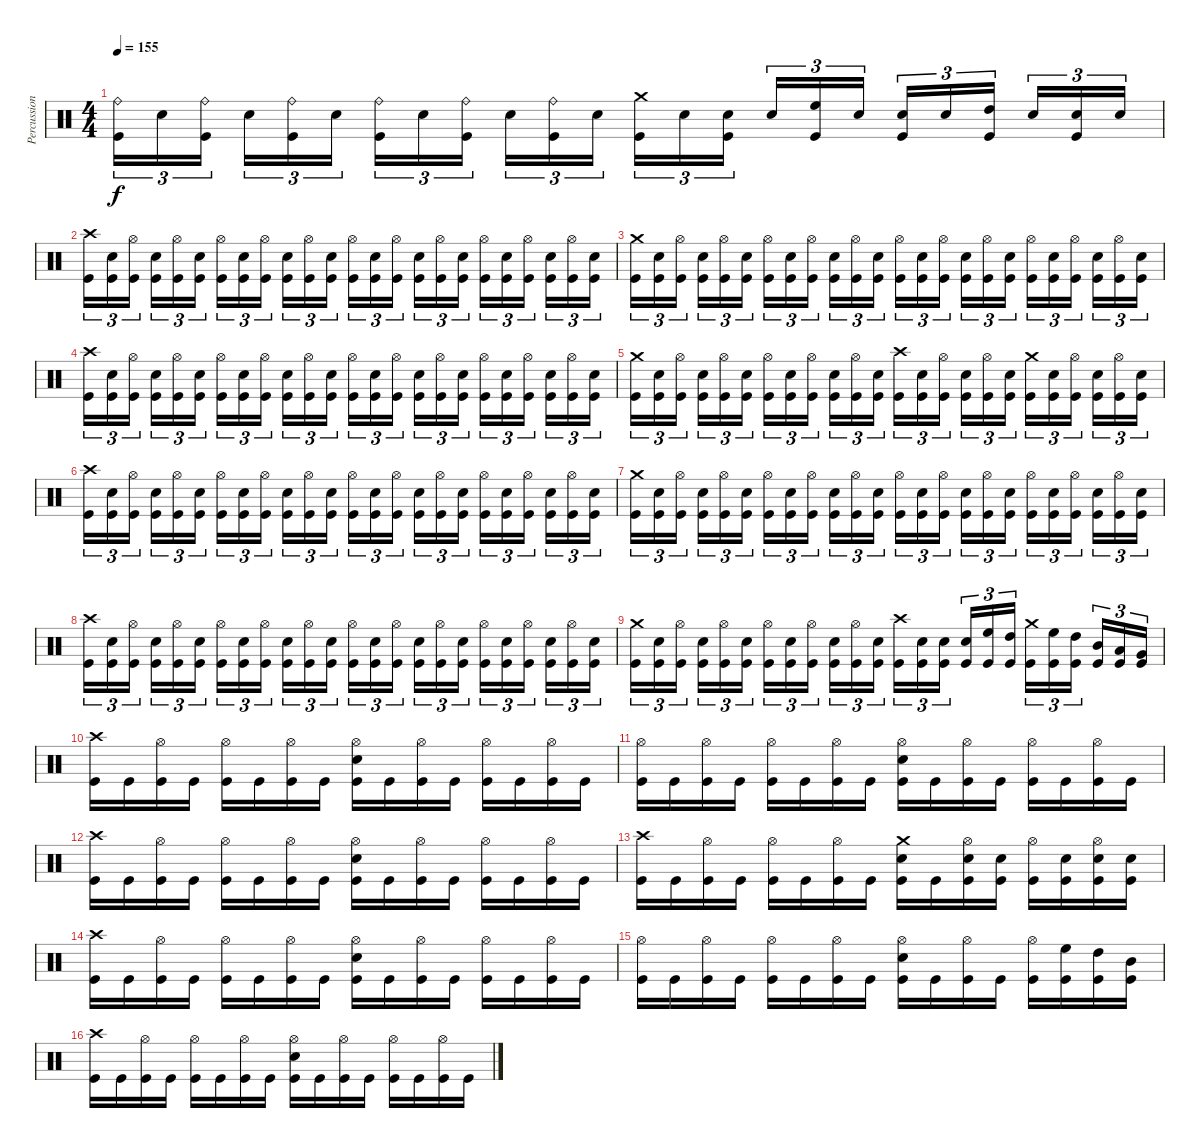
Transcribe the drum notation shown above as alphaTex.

\track ("Percussion" "Percussion") {instrument percussion}
\staff {score}
\articulation defaults
\ts (4 4)
\tempo 155
\clef neutral
\ks c
("Ride (bell)" "Kick (hit)").16{tu (3 2) dy f} "Snare (hit) 2".16{tu (3 2)} ("Ride (bell)" "Kick (hit)").16{tu (3 2) beam splitsecondary} "Snare (hit) 2".16{tu (3 2)} ("Ride (bell)" "Kick (hit)").16{tu (3 2)} "Snare (hit) 2".16{tu (3 2)} ("Ride (bell)" "Kick (hit)").16{tu (3 2)} "Snare (hit) 2".16{tu (3 2)} ("Ride (bell)" "Kick (hit)").16{tu (3 2) beam splitsecondary} "Snare (hit) 2".16{tu (3 2)} ("Ride (bell)" "Kick (hit)").16{tu (3 2)} "Snare (hit) 2".16{tu (3 2)} ("Crash medium (hit)" "Kick (hit)").16{tu (3 2)} "Snare (hit) 2".16{tu (3 2)} ("Snare (hit) 2" "Kick (hit)").16{tu (3 2) beam splitsecondary} "Snare (hit) 2".16{tu (3 2)} ("High Floor Tom (hit)" "Kick (hit)").16{tu (3 2)} "Snare (hit) 2".16{tu (3 2)} ("Snare (hit) 2" "Kick (hit)").16{tu (3 2)} "Snare (hit) 2".16{tu (3 2)} ("High Tom (hit)" "Kick (hit)").16{tu (3 2) beam splitsecondary} "Snare (hit) 2".16{tu (3 2)} ("Snare (hit) 2" "Kick (hit)").16{tu (3 2)} "Snare (hit) 2".16{tu (3 2)} |
("Crash high (hit)" "Kick (hit)").16{tu (3 2)} ("Snare (hit) 2" "Kick (hit)").16{tu (3 2)} ("Hi-Hat (open)" "Kick (hit)").16{tu (3 2) beam splitsecondary} ("Snare (hit) 2" "Kick (hit)").16{tu (3 2)} ("Hi-Hat (open)" "Kick (hit)").16{tu (3 2)} ("Snare (hit) 2" "Kick (hit)").16{tu (3 2)} ("Hi-Hat (open)" "Kick (hit)").16{tu (3 2)} ("Snare (hit) 2" "Kick (hit)").16{tu (3 2)} ("Hi-Hat (open)" "Kick (hit)").16{tu (3 2) beam splitsecondary} ("Snare (hit) 2" "Kick (hit)").16{tu (3 2)} ("Hi-Hat (open)" "Kick (hit)").16{tu (3 2)} ("Snare (hit) 2" "Kick (hit)").16{tu (3 2)} ("Hi-Hat (open)" "Kick (hit)").16{tu (3 2)} ("Snare (hit) 2" "Kick (hit)").16{tu (3 2)} ("Hi-Hat (open)" "Kick (hit)").16{tu (3 2) beam splitsecondary} ("Snare (hit) 2" "Kick (hit)").16{tu (3 2)} ("Hi-Hat (open)" "Kick (hit)").16{tu (3 2)} ("Snare (hit) 2" "Kick (hit)").16{tu (3 2)} ("Hi-Hat (open)" "Kick (hit)").16{tu (3 2)} ("Snare (hit) 2" "Kick (hit)").16{tu (3 2)} ("Hi-Hat (open)" "Kick (hit)").16{tu (3 2) beam splitsecondary} ("Snare (hit) 2" "Kick (hit)").16{tu (3 2)} ("Hi-Hat (open)" "Kick (hit)").16{tu (3 2)} ("Snare (hit) 2" "Kick (hit)").16{tu (3 2)} |
("Crash medium (hit)" "Kick (hit)").16{tu (3 2)} ("Snare (hit) 2" "Kick (hit)").16{tu (3 2)} ("Hi-Hat (open)" "Kick (hit)").16{tu (3 2) beam splitsecondary} ("Snare (hit) 2" "Kick (hit)").16{tu (3 2)} ("Hi-Hat (open)" "Kick (hit)").16{tu (3 2)} ("Snare (hit) 2" "Kick (hit)").16{tu (3 2)} ("Hi-Hat (open)" "Kick (hit)").16{tu (3 2)} ("Snare (hit) 2" "Kick (hit)").16{tu (3 2)} ("Hi-Hat (open)" "Kick (hit)").16{tu (3 2) beam splitsecondary} ("Snare (hit) 2" "Kick (hit)").16{tu (3 2)} ("Hi-Hat (open)" "Kick (hit)").16{tu (3 2)} ("Snare (hit) 2" "Kick (hit)").16{tu (3 2)} ("Hi-Hat (open)" "Kick (hit)").16{tu (3 2)} ("Snare (hit) 2" "Kick (hit)").16{tu (3 2)} ("Hi-Hat (open)" "Kick (hit)").16{tu (3 2) beam splitsecondary} ("Snare (hit) 2" "Kick (hit)").16{tu (3 2)} ("Hi-Hat (open)" "Kick (hit)").16{tu (3 2)} ("Snare (hit) 2" "Kick (hit)").16{tu (3 2)} ("Hi-Hat (open)" "Kick (hit)").16{tu (3 2)} ("Snare (hit) 2" "Kick (hit)").16{tu (3 2)} ("Hi-Hat (open)" "Kick (hit)").16{tu (3 2) beam splitsecondary} ("Snare (hit) 2" "Kick (hit)").16{tu (3 2)} ("Hi-Hat (open)" "Kick (hit)").16{tu (3 2)} ("Snare (hit) 2" "Kick (hit)").16{tu (3 2)} |
("Crash high (hit)" "Kick (hit)").16{tu (3 2)} ("Snare (hit) 2" "Kick (hit)").16{tu (3 2)} ("Hi-Hat (open)" "Kick (hit)").16{tu (3 2) beam splitsecondary} ("Snare (hit) 2" "Kick (hit)").16{tu (3 2)} ("Hi-Hat (open)" "Kick (hit)").16{tu (3 2)} ("Snare (hit) 2" "Kick (hit)").16{tu (3 2)} ("Hi-Hat (open)" "Kick (hit)").16{tu (3 2)} ("Snare (hit) 2" "Kick (hit)").16{tu (3 2)} ("Hi-Hat (open)" "Kick (hit)").16{tu (3 2) beam splitsecondary} ("Snare (hit) 2" "Kick (hit)").16{tu (3 2)} ("Hi-Hat (open)" "Kick (hit)").16{tu (3 2)} ("Snare (hit) 2" "Kick (hit)").16{tu (3 2)} ("Hi-Hat (open)" "Kick (hit)").16{tu (3 2)} ("Snare (hit) 2" "Kick (hit)").16{tu (3 2)} ("Hi-Hat (open)" "Kick (hit)").16{tu (3 2) beam splitsecondary} ("Snare (hit) 2" "Kick (hit)").16{tu (3 2)} ("Hi-Hat (open)" "Kick (hit)").16{tu (3 2)} ("Snare (hit) 2" "Kick (hit)").16{tu (3 2)} ("Hi-Hat (open)" "Kick (hit)").16{tu (3 2)} ("Snare (hit) 2" "Kick (hit)").16{tu (3 2)} ("Hi-Hat (open)" "Kick (hit)").16{tu (3 2) beam splitsecondary} ("Snare (hit) 2" "Kick (hit)").16{tu (3 2)} ("Hi-Hat (open)" "Kick (hit)").16{tu (3 2)} ("Snare (hit) 2" "Kick (hit)").16{tu (3 2)} |
("Crash medium (hit)" "Kick (hit)").16{tu (3 2)} ("Snare (hit) 2" "Kick (hit)").16{tu (3 2)} ("Hi-Hat (open)" "Kick (hit)").16{tu (3 2) beam splitsecondary} ("Snare (hit) 2" "Kick (hit)").16{tu (3 2)} ("Hi-Hat (open)" "Kick (hit)").16{tu (3 2)} ("Snare (hit) 2" "Kick (hit)").16{tu (3 2)} ("Hi-Hat (open)" "Kick (hit)").16{tu (3 2)} ("Snare (hit) 2" "Kick (hit)").16{tu (3 2)} ("Hi-Hat (open)" "Kick (hit)").16{tu (3 2) beam splitsecondary} ("Snare (hit) 2" "Kick (hit)").16{tu (3 2)} ("Hi-Hat (open)" "Kick (hit)").16{tu (3 2)} ("Snare (hit) 2" "Kick (hit)").16{tu (3 2)} ("Crash high (hit)" "Kick (hit)").16{tu (3 2)} ("Snare (hit) 2" "Kick (hit)").16{tu (3 2)} ("Hi-Hat (open)" "Kick (hit)").16{tu (3 2) beam splitsecondary} ("Snare (hit) 2" "Kick (hit)").16{tu (3 2)} ("Hi-Hat (open)" "Kick (hit)").16{tu (3 2)} ("Snare (hit) 2" "Kick (hit)").16{tu (3 2)} ("Crash medium (hit)" "Kick (hit)").16{tu (3 2)} ("Snare (hit) 2" "Kick (hit)").16{tu (3 2)} ("Hi-Hat (open)" "Kick (hit)").16{tu (3 2) beam splitsecondary} ("Snare (hit) 2" "Kick (hit)").16{tu (3 2)} ("Hi-Hat (open)" "Kick (hit)").16{tu (3 2)} ("Snare (hit) 2" "Kick (hit)").16{tu (3 2)} |
("Crash high (hit)" "Kick (hit)").16{tu (3 2)} ("Snare (hit) 2" "Kick (hit)").16{tu (3 2)} ("Hi-Hat (open)" "Kick (hit)").16{tu (3 2) beam splitsecondary} ("Snare (hit) 2" "Kick (hit)").16{tu (3 2)} ("Hi-Hat (open)" "Kick (hit)").16{tu (3 2)} ("Snare (hit) 2" "Kick (hit)").16{tu (3 2)} ("Hi-Hat (open)" "Kick (hit)").16{tu (3 2)} ("Snare (hit) 2" "Kick (hit)").16{tu (3 2)} ("Hi-Hat (open)" "Kick (hit)").16{tu (3 2) beam splitsecondary} ("Snare (hit) 2" "Kick (hit)").16{tu (3 2)} ("Hi-Hat (open)" "Kick (hit)").16{tu (3 2)} ("Snare (hit) 2" "Kick (hit)").16{tu (3 2)} ("Hi-Hat (open)" "Kick (hit)").16{tu (3 2)} ("Snare (hit) 2" "Kick (hit)").16{tu (3 2)} ("Hi-Hat (open)" "Kick (hit)").16{tu (3 2) beam splitsecondary} ("Snare (hit) 2" "Kick (hit)").16{tu (3 2)} ("Hi-Hat (open)" "Kick (hit)").16{tu (3 2)} ("Snare (hit) 2" "Kick (hit)").16{tu (3 2)} ("Hi-Hat (open)" "Kick (hit)").16{tu (3 2)} ("Snare (hit) 2" "Kick (hit)").16{tu (3 2)} ("Hi-Hat (open)" "Kick (hit)").16{tu (3 2) beam splitsecondary} ("Snare (hit) 2" "Kick (hit)").16{tu (3 2)} ("Hi-Hat (open)" "Kick (hit)").16{tu (3 2)} ("Snare (hit) 2" "Kick (hit)").16{tu (3 2)} |
("Crash medium (hit)" "Kick (hit)").16{tu (3 2)} ("Snare (hit) 2" "Kick (hit)").16{tu (3 2)} ("Hi-Hat (open)" "Kick (hit)").16{tu (3 2) beam splitsecondary} ("Snare (hit) 2" "Kick (hit)").16{tu (3 2)} ("Hi-Hat (open)" "Kick (hit)").16{tu (3 2)} ("Snare (hit) 2" "Kick (hit)").16{tu (3 2)} ("Hi-Hat (open)" "Kick (hit)").16{tu (3 2)} ("Snare (hit) 2" "Kick (hit)").16{tu (3 2)} ("Hi-Hat (open)" "Kick (hit)").16{tu (3 2) beam splitsecondary} ("Snare (hit) 2" "Kick (hit)").16{tu (3 2)} ("Hi-Hat (open)" "Kick (hit)").16{tu (3 2)} ("Snare (hit) 2" "Kick (hit)").16{tu (3 2)} ("Hi-Hat (open)" "Kick (hit)").16{tu (3 2)} ("Snare (hit) 2" "Kick (hit)").16{tu (3 2)} ("Hi-Hat (open)" "Kick (hit)").16{tu (3 2) beam splitsecondary} ("Snare (hit) 2" "Kick (hit)").16{tu (3 2)} ("Hi-Hat (open)" "Kick (hit)").16{tu (3 2)} ("Snare (hit) 2" "Kick (hit)").16{tu (3 2)} ("Hi-Hat (open)" "Kick (hit)").16{tu (3 2)} ("Snare (hit) 2" "Kick (hit)").16{tu (3 2)} ("Hi-Hat (open)" "Kick (hit)").16{tu (3 2) beam splitsecondary} ("Snare (hit) 2" "Kick (hit)").16{tu (3 2)} ("Hi-Hat (open)" "Kick (hit)").16{tu (3 2)} ("Snare (hit) 2" "Kick (hit)").16{tu (3 2)} |
("Crash high (hit)" "Kick (hit)").16{tu (3 2)} ("Snare (hit) 2" "Kick (hit)").16{tu (3 2)} ("Hi-Hat (open)" "Kick (hit)").16{tu (3 2) beam splitsecondary} ("Snare (hit) 2" "Kick (hit)").16{tu (3 2)} ("Hi-Hat (open)" "Kick (hit)").16{tu (3 2)} ("Snare (hit) 2" "Kick (hit)").16{tu (3 2)} ("Hi-Hat (open)" "Kick (hit)").16{tu (3 2)} ("Snare (hit) 2" "Kick (hit)").16{tu (3 2)} ("Hi-Hat (open)" "Kick (hit)").16{tu (3 2) beam splitsecondary} ("Snare (hit) 2" "Kick (hit)").16{tu (3 2)} ("Hi-Hat (open)" "Kick (hit)").16{tu (3 2)} ("Snare (hit) 2" "Kick (hit)").16{tu (3 2)} ("Hi-Hat (open)" "Kick (hit)").16{tu (3 2)} ("Snare (hit) 2" "Kick (hit)").16{tu (3 2)} ("Hi-Hat (open)" "Kick (hit)").16{tu (3 2) beam splitsecondary} ("Snare (hit) 2" "Kick (hit)").16{tu (3 2)} ("Hi-Hat (open)" "Kick (hit)").16{tu (3 2)} ("Snare (hit) 2" "Kick (hit)").16{tu (3 2)} ("Hi-Hat (open)" "Kick (hit)").16{tu (3 2)} ("Snare (hit) 2" "Kick (hit)").16{tu (3 2)} ("Hi-Hat (open)" "Kick (hit)").16{tu (3 2) beam splitsecondary} ("Snare (hit) 2" "Kick (hit)").16{tu (3 2)} ("Hi-Hat (open)" "Kick (hit)").16{tu (3 2)} ("Snare (hit) 2" "Kick (hit)").16{tu (3 2)} |
("Crash medium (hit)" "Kick (hit)").16{tu (3 2)} ("Snare (hit) 2" "Kick (hit)").16{tu (3 2)} ("Hi-Hat (open)" "Kick (hit)").16{tu (3 2) beam splitsecondary} ("Snare (hit) 2" "Kick (hit)").16{tu (3 2)} ("Hi-Hat (open)" "Kick (hit)").16{tu (3 2)} ("Snare (hit) 2" "Kick (hit)").16{tu (3 2)} ("Hi-Hat (open)" "Kick (hit)").16{tu (3 2)} ("Snare (hit) 2" "Kick (hit)").16{tu (3 2)} ("Hi-Hat (open)" "Kick (hit)").16{tu (3 2) beam splitsecondary} ("Snare (hit) 2" "Kick (hit)").16{tu (3 2)} ("Hi-Hat (open)" "Kick (hit)").16{tu (3 2)} ("Snare (hit) 2" "Kick (hit)").16{tu (3 2)} ("Crash high (hit)" "Kick (hit)").16{tu (3 2)} ("Snare (hit) 2" "Kick (hit)").16{tu (3 2)} ("Snare (hit) 2" "Kick (hit)").16{tu (3 2) beam splitsecondary} ("Snare (hit) 2" "Kick (hit)").16{tu (3 2)} ("High Floor Tom (hit)" "Kick (hit)").16{tu (3 2)} ("High Tom (hit)" "Kick (hit)").16{tu (3 2)} ("Crash medium (hit)" "Kick (hit)").16{tu (3 2)} ("High Floor Tom (hit)" "Kick (hit)").16{tu (3 2)} ("High Tom (hit)" "Kick (hit)").16{tu (3 2) beam splitsecondary} ("Mid Tom (hit)" "Kick (hit)").16{tu (3 2)} ("Low Tom (hit)" "Kick (hit)").16{tu (3 2)} ("Very Low Tom (hit)" "Kick (hit)").16{tu (3 2)} |
("Crash high (hit)" "Kick (hit)").16 "Kick (hit)".16 ("Hi-Hat (open)" "Kick (hit)").16 "Kick (hit)".16 ("Hi-Hat (open)" "Kick (hit)").16 "Kick (hit)".16 ("Hi-Hat (open)" "Kick (hit)").16 "Kick (hit)".16 ("Hi-Hat (open)" "Snare (hit) 2" "Kick (hit)").16 "Kick (hit)".16 ("Hi-Hat (open)" "Kick (hit)").16 "Kick (hit)".16 ("Hi-Hat (open)" "Kick (hit)").16 "Kick (hit)".16 ("Hi-Hat (open)" "Kick (hit)").16 "Kick (hit)".16 |
("Hi-Hat (open)" "Kick (hit)").16 "Kick (hit)".16 ("Hi-Hat (open)" "Kick (hit)").16 "Kick (hit)".16 ("Hi-Hat (open)" "Kick (hit)").16 "Kick (hit)".16 ("Hi-Hat (open)" "Kick (hit)").16 "Kick (hit)".16 ("Hi-Hat (open)" "Snare (hit) 2" "Kick (hit)").16 "Kick (hit)".16 ("Hi-Hat (open)" "Kick (hit)").16 "Kick (hit)".16 ("Hi-Hat (open)" "Kick (hit)").16 "Kick (hit)".16 ("Hi-Hat (open)" "Kick (hit)").16 "Kick (hit)".16 |
("Crash high (hit)" "Kick (hit)").16 "Kick (hit)".16 ("Hi-Hat (open)" "Kick (hit)").16 "Kick (hit)".16 ("Hi-Hat (open)" "Kick (hit)").16 "Kick (hit)".16 ("Hi-Hat (open)" "Kick (hit)").16 "Kick (hit)".16 ("Hi-Hat (open)" "Snare (hit) 2" "Kick (hit)").16 "Kick (hit)".16 ("Hi-Hat (open)" "Kick (hit)").16 "Kick (hit)".16 ("Hi-Hat (open)" "Kick (hit)").16 "Kick (hit)".16 ("Hi-Hat (open)" "Kick (hit)").16 "Kick (hit)".16 |
("Crash high (hit)" "Kick (hit)").16 "Kick (hit)".16 ("Hi-Hat (open)" "Kick (hit)").16 "Kick (hit)".16 ("Hi-Hat (open)" "Kick (hit)").16 "Kick (hit)".16 ("Hi-Hat (open)" "Kick (hit)").16 "Kick (hit)".16 ("Crash medium (hit)" "Snare (hit) 2" "Kick (hit)").16 "Kick (hit)".16 ("Hi-Hat (open)" "Snare (hit) 2" "Kick (hit)").16 ("Snare (hit) 2" "Kick (hit)").16 ("Hi-Hat (open)" "Kick (hit)").16 ("Snare (hit) 2" "Kick (hit)").16 ("Hi-Hat (open)" "Snare (hit) 2" "Kick (hit)").16 ("Snare (hit) 2" "Kick (hit)").16 |
("Crash high (hit)" "Kick (hit)").16 "Kick (hit)".16 ("Hi-Hat (open)" "Kick (hit)").16 "Kick (hit)".16 ("Hi-Hat (open)" "Kick (hit)").16 "Kick (hit)".16 ("Hi-Hat (open)" "Kick (hit)").16 "Kick (hit)".16 ("Hi-Hat (open)" "Snare (hit) 2" "Kick (hit)").16 "Kick (hit)".16 ("Hi-Hat (open)" "Kick (hit)").16 "Kick (hit)".16 ("Hi-Hat (open)" "Kick (hit)").16 "Kick (hit)".16 ("Hi-Hat (open)" "Kick (hit)").16 "Kick (hit)".16 |
("Hi-Hat (open)" "Kick (hit)").16 "Kick (hit)".16 ("Hi-Hat (open)" "Kick (hit)").16 "Kick (hit)".16 ("Hi-Hat (open)" "Kick (hit)").16 "Kick (hit)".16 ("Hi-Hat (open)" "Kick (hit)").16 "Kick (hit)".16 ("Hi-Hat (open)" "Snare (hit) 2" "Kick (hit)").16 "Kick (hit)".16 ("Hi-Hat (open)" "Kick (hit)").16 "Kick (hit)".16 ("Hi-Hat (open)" "Kick (hit)").16 ("High Floor Tom (hit)" "Kick (hit)").16 ("High Tom (hit)" "Kick (hit)").16 ("Mid Tom (hit)" "Kick (hit)").16 |
("Crash high (hit)" "Kick (hit)").16 "Kick (hit)".16 ("Hi-Hat (open)" "Kick (hit)").16 "Kick (hit)".16 ("Hi-Hat (open)" "Kick (hit)").16 "Kick (hit)".16 ("Hi-Hat (open)" "Kick (hit)").16 "Kick (hit)".16 ("Hi-Hat (open)" "Snare (hit) 2" "Kick (hit)").16 "Kick (hit)".16 ("Hi-Hat (open)" "Kick (hit)").16 "Kick (hit)".16 ("Hi-Hat (open)" "Kick (hit)").16 "Kick (hit)".16 ("Hi-Hat (open)" "Kick (hit)").16 "Kick (hit)".16
